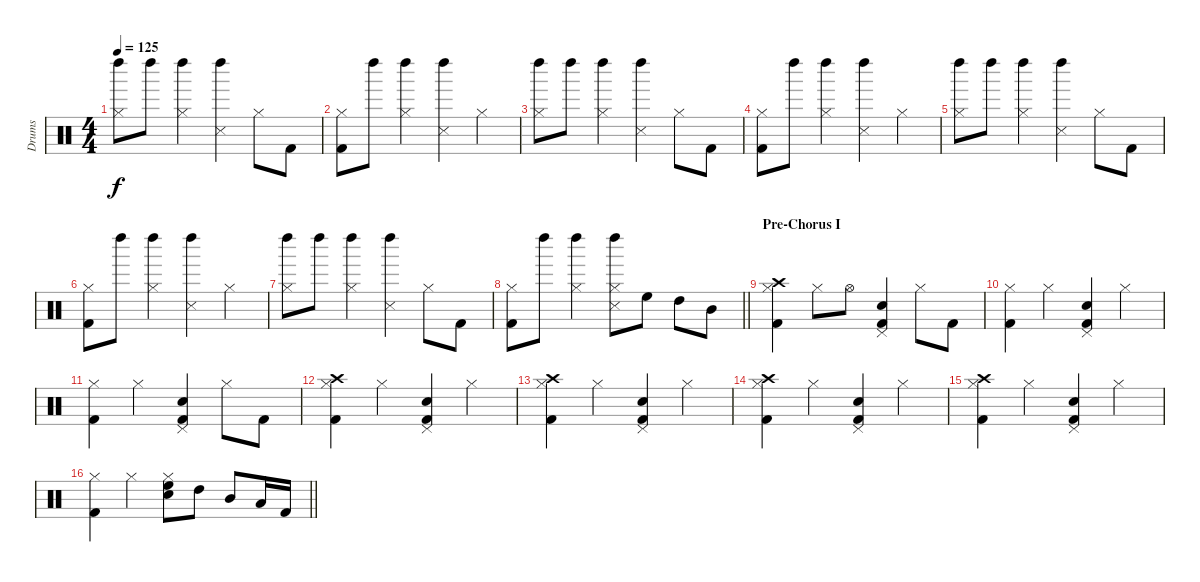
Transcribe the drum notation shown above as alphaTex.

\track ("Drums" "Drums") {instrument percussion}
\staff {score}
\articulation defaults
\ts (4 4)
\tempo 125
\clef neutral
\ks c
("Hi-Hat (closed)" "Left Maraca (hit)").8{dy f} "Left Maraca (hit)".8 ("Hi-Hat (closed)" "Left Maraca (hit)").4 ("Snare (side stick) 3" "Left Maraca (hit)").4 "Hi-Hat (closed)".8 "Kick (hit) 2".8 |
("Hi-Hat (closed)" "Kick (hit) 2").8 "Left Maraca (hit)".8 ("Hi-Hat (closed)" "Left Maraca (hit)").4 ("Snare (side stick) 3" "Left Maraca (hit)").4 "Hi-Hat (closed)".4 |
("Hi-Hat (closed)" "Left Maraca (hit)").8 "Left Maraca (hit)".8 ("Hi-Hat (closed)" "Left Maraca (hit)").4 ("Snare (side stick) 3" "Left Maraca (hit)").4 "Hi-Hat (closed)".8 "Kick (hit) 2".8 |
("Hi-Hat (closed)" "Kick (hit) 2").8 "Left Maraca (hit)".8 ("Hi-Hat (closed)" "Left Maraca (hit)").4 ("Snare (side stick) 3" "Left Maraca (hit)").4 "Hi-Hat (closed)".4 |
("Hi-Hat (closed)" "Left Maraca (hit)").8 "Left Maraca (hit)".8 ("Hi-Hat (closed)" "Left Maraca (hit)").4 ("Snare (side stick) 3" "Left Maraca (hit)").4 "Hi-Hat (closed)".8 "Kick (hit) 2".8 |
("Hi-Hat (closed)" "Kick (hit) 2").8 "Left Maraca (hit)".8 ("Hi-Hat (closed)" "Left Maraca (hit)").4 ("Snare (side stick) 3" "Left Maraca (hit)").4 "Hi-Hat (closed)".4 |
("Hi-Hat (closed)" "Left Maraca (hit)").8 "Left Maraca (hit)".8 ("Hi-Hat (closed)" "Left Maraca (hit)").4 ("Snare (side stick) 3" "Left Maraca (hit)").4 "Hi-Hat (closed)".8 "Kick (hit) 2".8 |
\barLineRight lightlight
("Hi-Hat (closed)" "Kick (hit) 2").8 "Left Maraca (hit)".8 ("Hi-Hat (closed)" "Left Maraca (hit)").4 ("Hi-Hat (closed)" "Snare (side stick) 3" "Left Maraca (hit)").8 "High Floor Tom (hit)".8 "High Tom (hit)".8 "Mid Tom (hit)".8 |
\section ("" "Pre-Chorus I")
("Crash high (hit)" "Hi-Hat (closed)" "Kick (hit) 2").4 "Hi-Hat (closed)".8 "Hi-Hat (open)".8 ("Pedal Hi-Hat (hit)" "Snare (hit) 2" "Kick (hit) 2").4 "Hi-Hat (closed)".8 "Kick (hit) 2".8 |
("Hi-Hat (closed)" "Kick (hit) 2").4 "Hi-Hat (closed)".4 ("Pedal Hi-Hat (hit)" "Snare (hit) 2" "Kick (hit) 2").4 "Hi-Hat (closed)".4 |
("Hi-Hat (closed)" "Kick (hit) 2").4 "Hi-Hat (closed)".4 ("Pedal Hi-Hat (hit)" "Snare (hit) 2" "Kick (hit) 2").4 "Hi-Hat (closed)".8 "Kick (hit) 2".8 |
("Crash high (hit)" "Hi-Hat (closed)" "Kick (hit) 2").4 "Hi-Hat (closed)".4 ("Pedal Hi-Hat (hit)" "Snare (hit) 2" "Kick (hit) 2").4 "Hi-Hat (closed)".4 |
("Crash high (hit)" "Hi-Hat (closed)" "Kick (hit) 2").4 "Hi-Hat (closed)".4 ("Pedal Hi-Hat (hit)" "Snare (hit) 2" "Kick (hit) 2").4 "Hi-Hat (closed)".4 |
("Crash high (hit)" "Hi-Hat (closed)" "Kick (hit) 2").4 "Hi-Hat (closed)".4 ("Pedal Hi-Hat (hit)" "Snare (hit) 2" "Kick (hit) 2").4 "Hi-Hat (closed)".4 |
("Crash high (hit)" "Hi-Hat (closed)" "Kick (hit) 2").4 "Hi-Hat (closed)".4 ("Pedal Hi-Hat (hit)" "Snare (hit) 2" "Kick (hit) 2").4 "Hi-Hat (closed)".4 |
\barLineRight lightlight
("Hi-Hat (closed)" "Kick (hit) 2").4 "Hi-Hat (closed)".4 ("Hi-Hat (closed)" "Snare (hit) 2" "High Floor Tom (hit)").8 "High Tom (hit)".8 "Mid Tom (hit)".8 "Low Tom (hit)".16 "Kick (hit) 2".16
